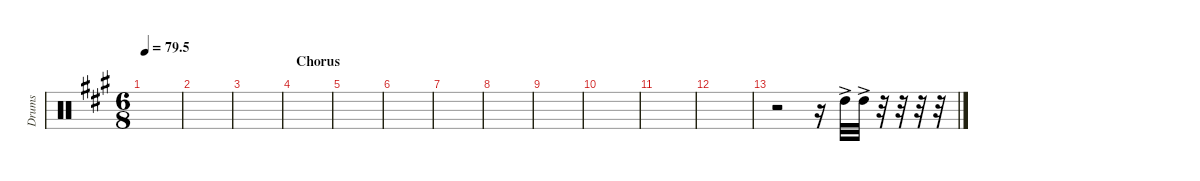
\defaultSystemsLayout 4
\hideDynamics
\bracketExtendMode nobrackets
\otherSystemsTrackNameOrientation horizontal
\track ("Tom 01" "Drums") {instrument percussion}
\staff {score}
\articulation defaults
\ts (6 8)
\tempo
79.5
\accidentals auto
\clef neutral
\ottava regular
\simile none
\scale
0.333333
\ks a
|
\scale
0.333333 |
\scale
0.333333 |
\section ("" "Chorus")
\scale
0.333333 |
\scale
0.333333 |
\scale
0.333333 |
\scale
0.333333 |
\scale
0.333333 |
\scale
0.333333 |
\scale
0.333333 |
\scale
0.333333 |
\scale
0.333333 |
\scale
0.333333 r.2 r.16 "High Tom (hit)"{ac acc forcenatural}.32 "High Tom (hit)"{ac acc forcenatural}.32 r.32 r.32 r.32 r.32 |
\scale
0.333333 |
\scale
0.333333 |
\scale
0.333333
